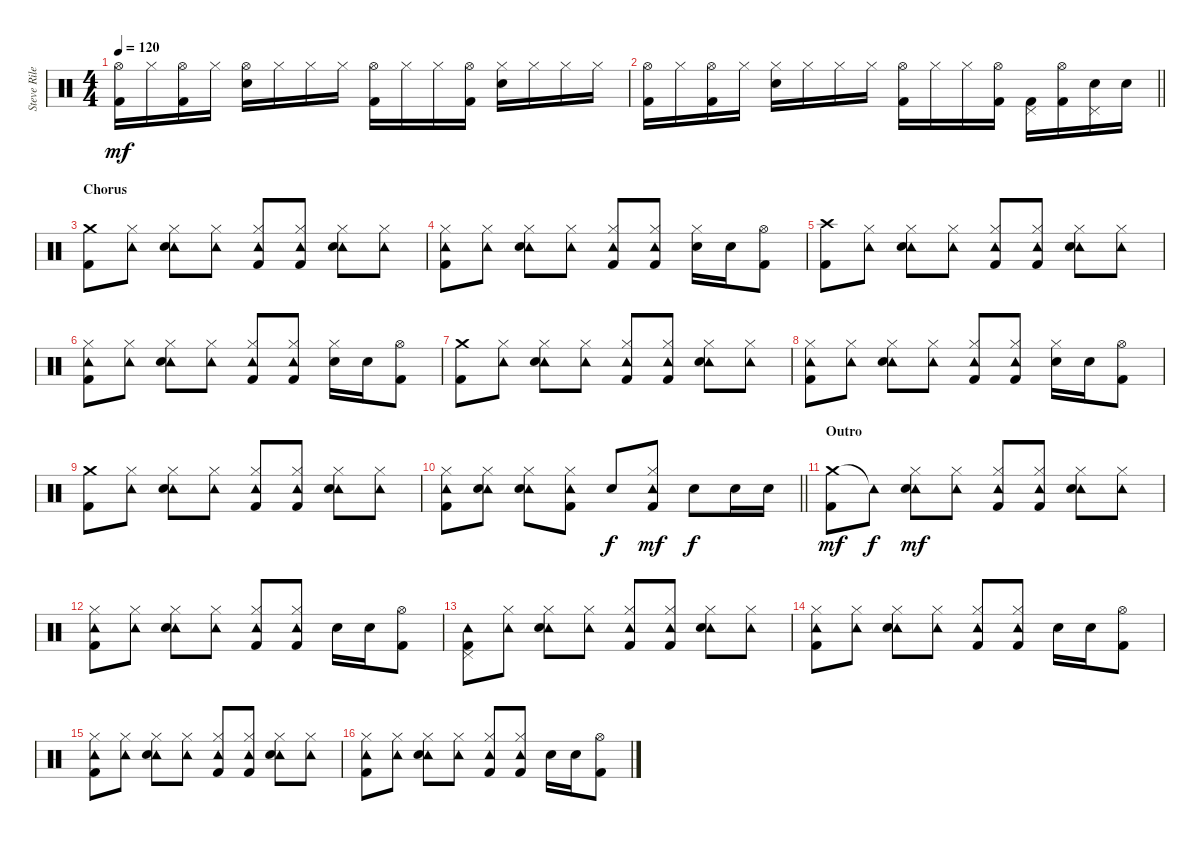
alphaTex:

\track ("Steve Riley" "Steve Rile") {instrument percussion}
\staff {score}
\articulation defaults
\ts (4 4)
\tempo 120
\clef neutral
\ks c
("Hi-Hat (open)" "Kick (hit) 2").16{dy mf} "Hi-Hat (closed)".16 ("Hi-Hat (open)" "Kick (hit) 2").16 "Hi-Hat (closed)".16 ("Hi-Hat (open)" "Snare (hit) 2").16 "Hi-Hat (closed)".16 "Hi-Hat (closed)".16 "Hi-Hat (closed)".16 ("Hi-Hat (open)" "Kick (hit) 2").16 "Hi-Hat (closed)".16 "Hi-Hat (closed)".16 ("Hi-Hat (open)" "Kick (hit) 2").16 ("Hi-Hat (closed)" "Snare (hit) 2").16 "Hi-Hat (closed)".16 "Hi-Hat (closed)".16 "Hi-Hat (closed)".16 |
\barLineRight lightlight
("Hi-Hat (open)" "Kick (hit) 2").16 "Hi-Hat (closed)".16 ("Hi-Hat (open)" "Kick (hit) 2").16 "Hi-Hat (closed)".16 ("Hi-Hat (closed)" "Snare (hit) 2").16 "Hi-Hat (closed)".16 "Hi-Hat (closed)".16 "Hi-Hat (closed)".16 ("Hi-Hat (open)" "Kick (hit) 2").16 "Hi-Hat (closed)".16 "Hi-Hat (closed)".16 ("Hi-Hat (open)" "Kick (hit) 2").16 ("Pedal Hi-Hat (hit)" "Kick (hit) 2").16 ("Hi-Hat (open)" "Kick (hit) 2").16 ("Pedal Hi-Hat (hit)" "Snare (hit) 2").16 "Snare (hit) 2".16 |
\section ("" "Chorus")
("Crash medium (hit)" "Kick (hit) 2").8 ("Tambourine (hit)" "Hi-Hat (closed)").8 ("Tambourine (hit)" "Hi-Hat (closed)" "Snare (hit) 2").8 ("Tambourine (hit)" "Hi-Hat (closed)").8 ("Tambourine (hit)" "Hi-Hat (closed)" "Kick (hit) 2").8 ("Tambourine (hit)" "Hi-Hat (closed)" "Kick (hit) 2").8 ("Tambourine (hit)" "Hi-Hat (closed)" "Snare (hit) 2").8 ("Tambourine (hit)" "Hi-Hat (closed)").8 |
("Tambourine (hit)" "Hi-Hat (closed)" "Kick (hit) 2").8 ("Tambourine (hit)" "Hi-Hat (closed)").8 ("Tambourine (hit)" "Hi-Hat (closed)" "Snare (hit) 2").8 ("Tambourine (hit)" "Hi-Hat (closed)").8 ("Tambourine (hit)" "Hi-Hat (closed)" "Kick (hit) 2").8 ("Tambourine (hit)" "Hi-Hat (closed)" "Kick (hit) 2").8 ("Hi-Hat (closed)" "Snare (hit) 2").16 "Snare (hit) 2".16 ("Hi-Hat (open)" "Kick (hit) 2").8 |
("Crash high (hit)" "Kick (hit) 2").8 ("Tambourine (hit)" "Hi-Hat (closed)").8 ("Tambourine (hit)" "Hi-Hat (closed)" "Snare (hit) 2").8 ("Tambourine (hit)" "Hi-Hat (closed)").8 ("Tambourine (hit)" "Hi-Hat (closed)" "Kick (hit) 2").8 ("Tambourine (hit)" "Hi-Hat (closed)" "Kick (hit) 2").8 ("Tambourine (hit)" "Hi-Hat (closed)" "Snare (hit) 2").8 ("Tambourine (hit)" "Hi-Hat (closed)").8 |
("Tambourine (hit)" "Hi-Hat (closed)" "Kick (hit) 2").8 ("Tambourine (hit)" "Hi-Hat (closed)").8 ("Tambourine (hit)" "Hi-Hat (closed)" "Snare (hit) 2").8 ("Tambourine (hit)" "Hi-Hat (closed)").8 ("Tambourine (hit)" "Hi-Hat (closed)" "Kick (hit) 2").8 ("Tambourine (hit)" "Hi-Hat (closed)" "Kick (hit) 2").8 ("Hi-Hat (closed)" "Snare (hit) 2").16 "Snare (hit) 2".16 ("Hi-Hat (open)" "Kick (hit) 2").8 |
("Crash medium (hit)" "Kick (hit) 2").8 ("Tambourine (hit)" "Hi-Hat (closed)").8 ("Tambourine (hit)" "Hi-Hat (closed)" "Snare (hit) 2").8 ("Tambourine (hit)" "Hi-Hat (closed)").8 ("Tambourine (hit)" "Hi-Hat (closed)" "Kick (hit) 2").8 ("Tambourine (hit)" "Hi-Hat (closed)" "Kick (hit) 2").8 ("Tambourine (hit)" "Hi-Hat (closed)" "Snare (hit) 2").8 ("Tambourine (hit)" "Hi-Hat (closed)").8 |
("Tambourine (hit)" "Hi-Hat (closed)" "Kick (hit) 2").8 ("Tambourine (hit)" "Hi-Hat (closed)").8 ("Tambourine (hit)" "Hi-Hat (closed)" "Snare (hit) 2").8 ("Tambourine (hit)" "Hi-Hat (closed)").8 ("Tambourine (hit)" "Hi-Hat (closed)" "Kick (hit) 2").8 ("Tambourine (hit)" "Hi-Hat (closed)" "Kick (hit) 2").8 ("Hi-Hat (closed)" "Snare (hit) 2").16 "Snare (hit) 2".16 ("Hi-Hat (open)" "Kick (hit) 2").8 |
("Crash medium (hit)" "Kick (hit) 2").8 ("Tambourine (hit)" "Hi-Hat (closed)").8 ("Tambourine (hit)" "Hi-Hat (closed)" "Snare (hit) 2").8 ("Tambourine (hit)" "Hi-Hat (closed)").8 ("Tambourine (hit)" "Hi-Hat (closed)" "Kick (hit) 2").8 ("Tambourine (hit)" "Hi-Hat (closed)" "Kick (hit) 2").8 ("Tambourine (hit)" "Hi-Hat (closed)" "Snare (hit) 2").8 ("Tambourine (hit)" "Hi-Hat (closed)").8 |
\barLineRight lightlight
("Tambourine (hit)" "Hi-Hat (closed)" "Kick (hit) 2").8 ("Tambourine (hit)" "Hi-Hat (closed)" "Snare (hit) 2").8 ("Tambourine (hit)" "Hi-Hat (closed)" "Snare (hit) 2").8 ("Tambourine (hit)" "Hi-Hat (closed)" "Kick (hit) 2").8 "Snare (hit) 2".8{dy f} ("Tambourine (hit)" "Hi-Hat (closed)" "Kick (hit) 2").8{dy mf} "Snare (hit) 2".8{dy f} "Snare (hit) 2".16 "Snare (hit) 2".16 |
\section ("" "Outro")
("Crash medium (hit)" "Kick (hit) 2").8{dy mf} "Tambourine (hit)"{t}.8{dy f} ("Tambourine (hit)" "Hi-Hat (closed)" "Snare (hit) 2").8{dy mf} ("Tambourine (hit)" "Hi-Hat (closed)").8 ("Tambourine (hit)" "Hi-Hat (closed)" "Kick (hit) 2").8 ("Tambourine (hit)" "Hi-Hat (closed)" "Kick (hit) 2").8 ("Tambourine (hit)" "Hi-Hat (closed)" "Snare (hit) 2").8 ("Tambourine (hit)" "Hi-Hat (closed)").8 |
("Tambourine (hit)" "Hi-Hat (closed)" "Kick (hit) 2").8 ("Tambourine (hit)" "Hi-Hat (closed)").8 ("Tambourine (hit)" "Hi-Hat (closed)" "Snare (hit) 2").8 ("Tambourine (hit)" "Hi-Hat (closed)").8 ("Tambourine (hit)" "Hi-Hat (closed)" "Kick (hit) 2").8 ("Tambourine (hit)" "Hi-Hat (closed)" "Kick (hit) 2").8 "Snare (hit) 2".16 "Snare (hit) 2".16 ("Hi-Hat (open)" "Kick (hit) 2").8 |
("Tambourine (hit)" "Pedal Hi-Hat (hit)" "Kick (hit) 2").8 ("Tambourine (hit)" "Hi-Hat (closed)").8 ("Tambourine (hit)" "Hi-Hat (closed)" "Snare (hit) 2").8 ("Tambourine (hit)" "Hi-Hat (closed)").8 ("Tambourine (hit)" "Hi-Hat (closed)" "Kick (hit) 2").8 ("Tambourine (hit)" "Hi-Hat (closed)" "Kick (hit) 2").8 ("Tambourine (hit)" "Hi-Hat (closed)" "Snare (hit) 2").8 ("Tambourine (hit)" "Hi-Hat (closed)").8 |
("Tambourine (hit)" "Hi-Hat (closed)" "Kick (hit) 2").8 ("Tambourine (hit)" "Hi-Hat (closed)").8 ("Tambourine (hit)" "Hi-Hat (closed)" "Snare (hit) 2").8 ("Tambourine (hit)" "Hi-Hat (closed)").8 ("Tambourine (hit)" "Hi-Hat (closed)" "Kick (hit) 2").8 ("Tambourine (hit)" "Hi-Hat (closed)" "Kick (hit) 2").8 "Snare (hit) 2".16 "Snare (hit) 2".16 ("Hi-Hat (open)" "Kick (hit) 2").8 |
("Tambourine (hit)" "Hi-Hat (closed)" "Kick (hit) 2").8 ("Tambourine (hit)" "Hi-Hat (closed)").8 ("Tambourine (hit)" "Hi-Hat (closed)" "Snare (hit) 2").8 ("Tambourine (hit)" "Hi-Hat (closed)").8 ("Tambourine (hit)" "Hi-Hat (closed)" "Kick (hit) 2").8 ("Tambourine (hit)" "Hi-Hat (closed)" "Kick (hit) 2").8 ("Tambourine (hit)" "Hi-Hat (closed)" "Snare (hit) 2").8 ("Tambourine (hit)" "Hi-Hat (closed)").8 |
("Tambourine (hit)" "Hi-Hat (closed)" "Kick (hit) 2").8 ("Tambourine (hit)" "Hi-Hat (closed)").8 ("Tambourine (hit)" "Hi-Hat (closed)" "Snare (hit) 2").8 ("Tambourine (hit)" "Hi-Hat (closed)").8 ("Tambourine (hit)" "Hi-Hat (closed)" "Kick (hit) 2").8 ("Tambourine (hit)" "Hi-Hat (closed)" "Kick (hit) 2").8 "Snare (hit) 2".16 "Snare (hit) 2".16 ("Hi-Hat (open)" "Kick (hit) 2").8
